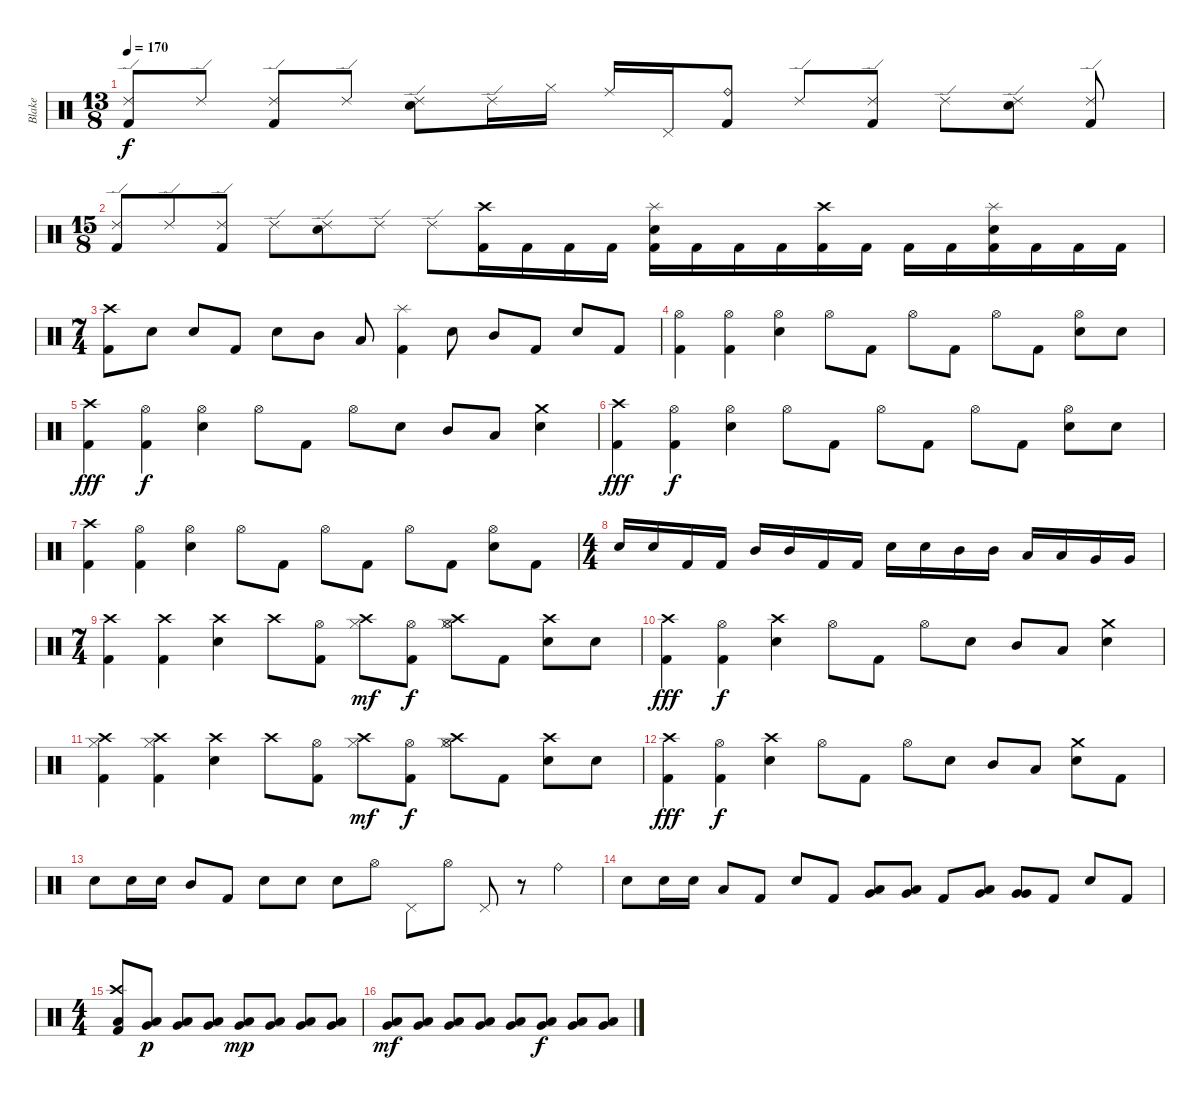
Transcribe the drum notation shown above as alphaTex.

\track ("Blake" "Blake") {instrument percussion}
\staff {score}
\articulation defaults
\ts (13 8)
\tempo 170
\clef neutral
\ks c
("Ride (edge) 2" "Kick (hit) 2").8{dy f} "Ride (edge) 2".8 ("Ride (edge) 2" "Kick (hit) 2").8 "Ride (edge) 2".8 ("Ride (edge) 2" "Snare (hit) 2").8 "Ride (edge) 2".16 "Hi-Hat (closed)".16 "Ride (middle)".16 "Pedal Hi-Hat (hit)".16 ("Ride (bell)" "Kick (hit) 2").8 "Ride (edge) 2".8 ("Ride (edge) 2" "Kick (hit) 2").8 "Ride (edge) 2".8 ("Ride (edge) 2" "Snare (hit) 2").8 ("Ride (edge) 2" "Kick (hit) 2").8 |
\ts (15 8)
("Ride (edge) 2" "Kick (hit) 2").8 "Ride (edge) 2".8 ("Ride (edge) 2" "Kick (hit) 2").8 "Ride (edge) 2".8 ("Ride (edge) 2" "Snare (hit) 2").8 "Ride (edge) 2".8 "Ride (edge) 2".8 ("Crash high (hit)" "Kick (hit) 2").16 "Kick (hit) 2".16 "Kick (hit) 2".16 "Kick (hit) 2".16 ("Splash (hit)" "Snare (hit) 2" "Kick (hit) 2").16 "Kick (hit) 2".16 "Kick (hit) 2".16 "Kick (hit) 2".16 ("Crash high (hit)" "Kick (hit) 2").16 "Kick (hit) 2".16 "Kick (hit) 2".16 "Kick (hit) 2".16 ("Splash (hit)" "Snare (hit) 2" "Kick (hit) 2").16 "Kick (hit) 2".16 "Kick (hit) 2".16 "Kick (hit) 2".16 |
\ts (7 4)
("Crash high (hit)" "Kick (hit) 2").8 "Snare (hit) 2".8 "Snare (hit) 2".8 "Kick (hit) 2".8 "Snare (hit) 2".8 "Mid Tom (hit)".8 "Low Tom (hit)".8 ("Splash (hit)" "Kick (hit) 2").4 "Snare (hit) 2".8 "Mid Tom (hit)".8 "Kick (hit) 2".8 "Snare (hit) 2".8 "Kick (hit) 2".8 |
("Hi-Hat (open)" "Kick (hit) 2").4 ("Hi-Hat (open)" "Kick (hit) 2").4 ("Hi-Hat (open)" "Snare (hit) 2").4 "Hi-Hat (open)".8 "Kick (hit) 2".8 "Hi-Hat (open)".8 "Kick (hit) 2".8 "Hi-Hat (open)".8 "Kick (hit) 2".8 ("Hi-Hat (open)" "Snare (hit) 2").8 "Snare (hit) 2".8 |
("Crash high (hit)" "Kick (hit) 2").4{dy fff} ("Hi-Hat (open)" "Kick (hit) 2").4{dy f} ("Hi-Hat (open)" "Snare (hit) 2").4 "Hi-Hat (open)".8 "Kick (hit) 2".8 "Hi-Hat (open)".8 "Snare (hit) 2".8 "Mid Tom (hit)".8 "Low Tom (hit)".8 ("Crash medium (hit)" "Snare (hit) 2").4 |
("Crash high (hit)" "Kick (hit) 2").4{dy fff} ("Hi-Hat (open)" "Kick (hit) 2").4{dy f} ("Hi-Hat (open)" "Snare (hit) 2").4 "Hi-Hat (open)".8 "Kick (hit) 2".8 "Hi-Hat (open)".8 "Kick (hit) 2".8 "Hi-Hat (open)".8 "Kick (hit) 2".8 ("Hi-Hat (open)" "Snare (hit) 2").8 "Snare (hit) 2".8 |
("Crash high (hit)" "Kick (hit) 2").4 ("Hi-Hat (open)" "Kick (hit) 2").4 ("Hi-Hat (open)" "Snare (hit) 2").4 "Hi-Hat (open)".8 "Kick (hit) 2".8 "Hi-Hat (open)".8 "Kick (hit) 2".8 "Hi-Hat (open)".8 "Kick (hit) 2".8 ("Hi-Hat (open)" "Snare (hit) 2").8 "Kick (hit) 2".8 |
\ts (4 4)
"Snare (hit) 2".16 "Snare (hit) 2".16 "Kick (hit) 2".16 "Kick (hit) 2".16 "Mid Tom (hit)".16 "Mid Tom (hit)".16 "Kick (hit) 2".16 "Kick (hit) 2".16 "Snare (hit) 2".16 "Snare (hit) 2".16 "Mid Tom (hit)".16 "Mid Tom (hit)".16 "Low Tom (hit)".16 "Low Tom (hit)".16 "Very Low Tom (hit)".16 "Very Low Tom (hit)".16 |
\ts (7 4)
("Crash high (hit)" "Kick (hit) 2").4 ("Crash high (hit)" "Kick (hit) 2").4 ("Crash high (hit)" "Snare (hit) 2").4 "Crash high (hit)".8 ("Hi-Hat (open)" "Kick (hit) 2").8 ("Crash high (hit)" "Hi-Hat (closed)").8{dy mf} ("Hi-Hat (open)" "Kick (hit) 2").8{dy f} ("Crash high (hit)" "Hi-Hat (open)" "Hi-Hat (closed)").8 "Kick (hit) 2".8 ("Crash high (hit)" "Snare (hit) 2").8 "Snare (hit) 2".8 |
("Crash high (hit)" "Kick (hit) 2").4{dy fff} ("Hi-Hat (open)" "Kick (hit) 2").4{dy f} ("Crash high (hit)" "Snare (hit) 2").4 "Hi-Hat (open)".8 "Kick (hit) 2".8 "Hi-Hat (open)".8 "Snare (hit) 2".8 "Mid Tom (hit)".8 "Low Tom (hit)".8 ("Crash medium (hit)" "Snare (hit) 2").4 |
("Crash high (hit)" "Hi-Hat (closed)" "Kick (hit) 2").4 ("Crash high (hit)" "Hi-Hat (closed)" "Kick (hit) 2").4 ("Crash high (hit)" "Snare (hit) 2").4 "Crash high (hit)".8 ("Hi-Hat (open)" "Kick (hit) 2").8 ("Crash high (hit)" "Hi-Hat (closed)").8{dy mf} ("Hi-Hat (open)" "Kick (hit) 2").8{dy f} ("Crash high (hit)" "Hi-Hat (open)" "Hi-Hat (closed)").8 "Kick (hit) 2".8 ("Crash high (hit)" "Snare (hit) 2").8 "Snare (hit) 2".8 |
("Crash high (hit)" "Kick (hit) 2").4{dy fff} ("Hi-Hat (open)" "Kick (hit) 2").4{dy f} ("Crash high (hit)" "Snare (hit) 2").4 "Hi-Hat (open)".8 "Kick (hit) 2".8 "Hi-Hat (open)".8 "Snare (hit) 2".8 "Mid Tom (hit)".8 "Low Tom (hit)".8 ("Crash medium (hit)" "Snare (hit) 2").8 "Kick (hit) 2".8 |
"Snare (hit) 2".8 "Snare (hit) 2".16 "Snare (hit) 2".16 "Mid Tom (hit)".8 "Kick (hit) 2".8 "Snare (hit) 2".8 "Snare (hit) 2".8 "Snare (hit) 2".8 "Hi-Hat (open)".8 "Pedal Hi-Hat (hit)".8 "Hi-Hat (open)".8 "Pedal Hi-Hat (hit)".8 r.8 "Ride (bell)".4 |
"Snare (hit) 2".8 "Snare (hit) 2".16 "Snare (hit) 2".16 "Low Tom (hit)".8 "Kick (hit) 2".8 "Snare (hit) 2".8 "Kick (hit) 2".8 ("Very Low Tom (hit)" "Low Tom (hit)").8 ("Very Low Tom (hit)" "Low Tom (hit)").8 "Kick (hit) 2".8 ("Very Low Tom (hit)" "Low Floor Tom (hit)").8 ("Very Low Tom (hit)" "Very Low Tom (hit)").8 "Kick (hit) 2".8 "Snare (hit) 2".8 "Kick (hit) 2".8 |
\ts (4 4)
("Crash high (hit)" "Low Tom (hit)" "Kick (hit) 2").8 ("Very Low Tom (hit)" "Low Tom (hit)").8{dy p} ("Very Low Tom (hit)" "Low Tom (hit)").8 ("Very Low Tom (hit)" "Low Tom (hit)").8 ("Very Low Tom (hit)" "Low Tom (hit)").8{dy mp} ("Very Low Tom (hit)" "Low Tom (hit)").8 ("Very Low Tom (hit)" "Low Tom (hit)").8 ("Very Low Tom (hit)" "Low Tom (hit)").8 |
("Very Low Tom (hit)" "Low Tom (hit)").8{dy mf} ("Very Low Tom (hit)" "Low Tom (hit)").8 ("Very Low Tom (hit)" "Low Tom (hit)").8 ("Very Low Tom (hit)" "Low Tom (hit)").8 ("Very Low Tom (hit)" "Low Tom (hit)").8 ("Very Low Tom (hit)" "Low Tom (hit)").8{dy f} ("Very Low Tom (hit)" "Low Tom (hit)").8 ("Very Low Tom (hit)" "Low Tom (hit)").8
